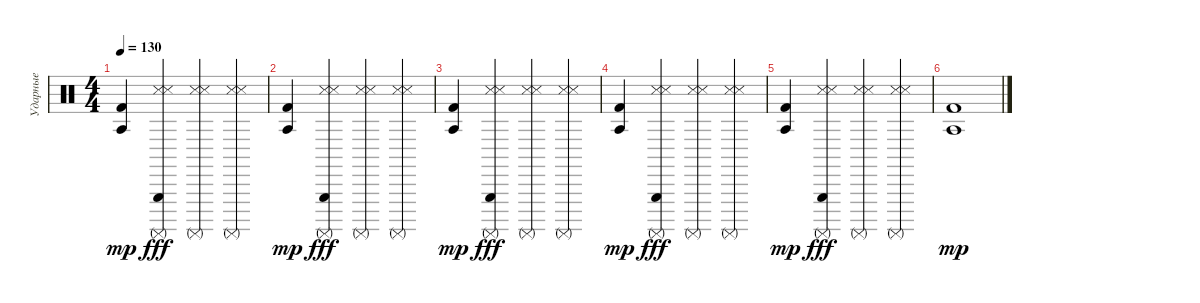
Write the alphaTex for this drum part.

\track ("Ударные" "Ударные") {instrument percussion}
\staff {score}
\articulation defaults
\ts (4 4)
\tempo 130
\clef neutral
\ks c
("Kick (hit) 2" "Agogo tow (hit)").4{dy mp} ("Metronome (hit)" "Snare (side stick) 3" "Surdo (mute)" "Triangle (hit)").4{dy fff} ("Metronome (hit)" "Snare (side stick) 3" "Surdo (mute)").4 ("Metronome (hit)" "Snare (side stick) 3" "Surdo (mute)").4 |
("Kick (hit) 2" "Agogo tow (hit)").4{dy mp} ("Metronome (hit)" "Snare (side stick) 3" "Surdo (mute)" "Triangle (hit)").4{dy fff} ("Metronome (hit)" "Snare (side stick) 3" "Surdo (mute)").4 ("Metronome (hit)" "Snare (side stick) 3" "Surdo (mute)").4 |
("Kick (hit) 2" "Agogo tow (hit)").4{dy mp} ("Metronome (hit)" "Snare (side stick) 3" "Surdo (mute)" "Triangle (hit)").4{dy fff} ("Metronome (hit)" "Snare (side stick) 3" "Surdo (mute)").4 ("Metronome (hit)" "Snare (side stick) 3" "Surdo (mute)").4 |
("Kick (hit) 2" "Agogo tow (hit)").4{dy mp} ("Metronome (hit)" "Snare (side stick) 3" "Surdo (mute)" "Triangle (hit)").4{dy fff} ("Metronome (hit)" "Snare (side stick) 3" "Surdo (mute)").4 ("Metronome (hit)" "Snare (side stick) 3" "Surdo (mute)").4 |
("Kick (hit) 2" "Agogo tow (hit)").4{dy mp} ("Metronome (hit)" "Snare (side stick) 3" "Surdo (mute)" "Triangle (hit)").4{dy fff} ("Metronome (hit)" "Snare (side stick) 3" "Surdo (mute)").4 ("Metronome (hit)" "Snare (side stick) 3" "Surdo (mute)").4 |
("Kick (hit) 2" "Agogo tow (hit)").1{dy mp}
